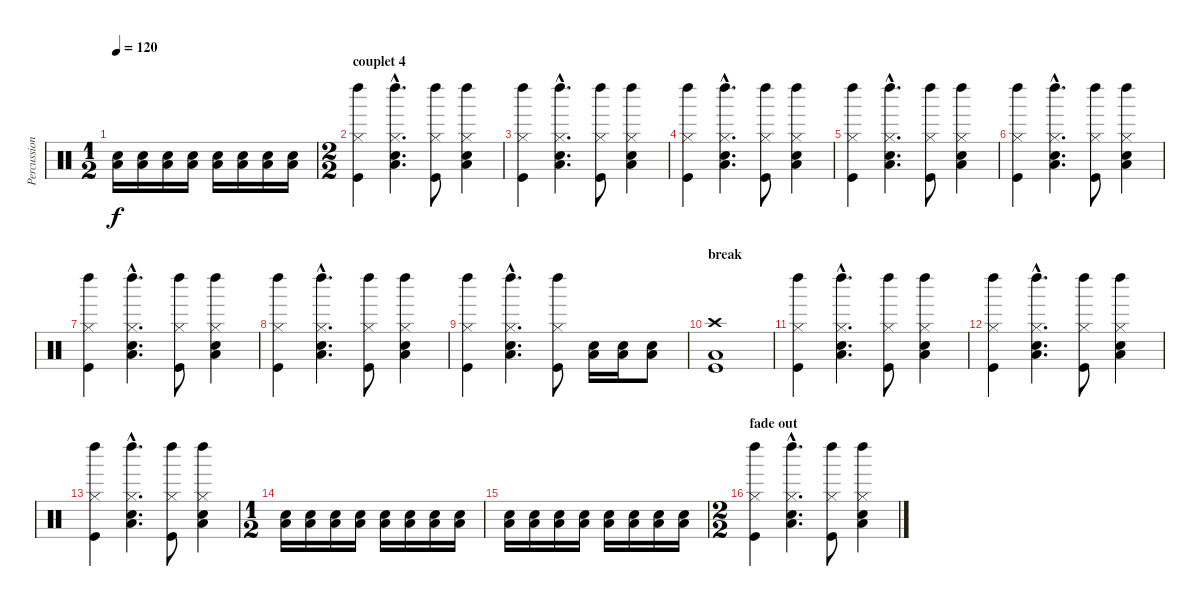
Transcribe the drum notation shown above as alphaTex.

\track ("Percussions" "Percussion") {instrument percussion}
\staff {score}
\articulation defaults
\ts (1 2)
\tempo 120
\clef neutral
\ks c
("Low Floor Tom (hit)" "Hand Clap (hit)").16{dy f} ("Low Floor Tom (hit)" "Hand Clap (hit)").16 ("Low Floor Tom (hit)" "Hand Clap (hit)").16 ("Low Floor Tom (hit)" "Hand Clap (hit)").16 ("Low Floor Tom (hit)" "Hand Clap (hit)").16 ("Low Floor Tom (hit)" "Hand Clap (hit)").16 ("Low Floor Tom (hit)" "Hand Clap (hit)").16 ("Low Floor Tom (hit)" "Hand Clap (hit)").16 |
\ts (2 2)
\section ("" "couplet 4")
("Hi-Hat (closed)" "Left Maraca (hit)" "Kick (hit)").4 ("Hi-Hat (closed)"{hac} "Left Maraca (hit)"{hac} "Low Floor Tom (hit)"{hac} "Hand Clap (hit)"{hac}).4{d} ("Hi-Hat (closed)" "Left Maraca (hit)" "Kick (hit)").8 ("Hi-Hat (closed)" "Left Maraca (hit)" "Low Floor Tom (hit)" "Hand Clap (hit)").4 |
("Hi-Hat (closed)" "Left Maraca (hit)" "Kick (hit)").4 ("Hi-Hat (closed)"{hac} "Left Maraca (hit)"{hac} "Low Floor Tom (hit)"{hac} "Hand Clap (hit)"{hac}).4{d} ("Hi-Hat (closed)" "Left Maraca (hit)" "Kick (hit)").8 ("Hi-Hat (closed)" "Left Maraca (hit)" "Low Floor Tom (hit)" "Hand Clap (hit)").4 |
("Hi-Hat (closed)" "Left Maraca (hit)" "Kick (hit)").4 ("Hi-Hat (closed)"{hac} "Left Maraca (hit)"{hac} "Low Floor Tom (hit)"{hac} "Hand Clap (hit)"{hac}).4{d} ("Hi-Hat (closed)" "Left Maraca (hit)" "Kick (hit)").8 ("Hi-Hat (closed)" "Left Maraca (hit)" "Low Floor Tom (hit)" "Hand Clap (hit)").4 |
("Hi-Hat (closed)" "Left Maraca (hit)" "Kick (hit)").4 ("Hi-Hat (closed)"{hac} "Left Maraca (hit)"{hac} "Low Floor Tom (hit)"{hac} "Hand Clap (hit)"{hac}).4{d} ("Hi-Hat (closed)" "Left Maraca (hit)" "Kick (hit)").8 ("Hi-Hat (closed)" "Left Maraca (hit)" "Low Floor Tom (hit)" "Hand Clap (hit)").4 |
("Hi-Hat (closed)" "Left Maraca (hit)" "Kick (hit)").4 ("Hi-Hat (closed)"{hac} "Left Maraca (hit)"{hac} "Low Floor Tom (hit)"{hac} "Hand Clap (hit)"{hac}).4{d} ("Hi-Hat (closed)" "Left Maraca (hit)" "Kick (hit)").8 ("Hi-Hat (closed)" "Left Maraca (hit)" "Low Floor Tom (hit)" "Hand Clap (hit)").4 |
("Hi-Hat (closed)" "Left Maraca (hit)" "Kick (hit)").4 ("Hi-Hat (closed)"{hac} "Left Maraca (hit)"{hac} "Low Floor Tom (hit)"{hac} "Hand Clap (hit)"{hac}).4{d} ("Hi-Hat (closed)" "Left Maraca (hit)" "Kick (hit)").8 ("Hi-Hat (closed)" "Left Maraca (hit)" "Low Floor Tom (hit)" "Hand Clap (hit)").4 |
("Hi-Hat (closed)" "Left Maraca (hit)" "Kick (hit)").4 ("Hi-Hat (closed)"{hac} "Left Maraca (hit)"{hac} "Low Floor Tom (hit)"{hac} "Hand Clap (hit)"{hac}).4{d} ("Hi-Hat (closed)" "Left Maraca (hit)" "Kick (hit)").8 ("Hi-Hat (closed)" "Left Maraca (hit)" "Low Floor Tom (hit)" "Hand Clap (hit)").4 |
("Hi-Hat (closed)" "Left Maraca (hit)" "Kick (hit)").4 ("Hi-Hat (closed)"{hac} "Left Maraca (hit)"{hac} "Low Floor Tom (hit)"{hac} "Hand Clap (hit)"{hac}).4{d} ("Hi-Hat (closed)" "Left Maraca (hit)" "Kick (hit)").8 ("Low Floor Tom (hit)" "Hand Clap (hit)").16 ("Low Floor Tom (hit)" "Hand Clap (hit)").16 ("Low Floor Tom (hit)" "Hand Clap (hit)").8 |
\section ("" "break")
("Crash high (hit)" "Low Floor Tom (hit)" "Kick (hit)").1 |
("Hi-Hat (closed)" "Left Maraca (hit)" "Kick (hit)").4 ("Hi-Hat (closed)"{hac} "Left Maraca (hit)"{hac} "Low Floor Tom (hit)"{hac} "Hand Clap (hit)"{hac}).4{d} ("Hi-Hat (closed)" "Left Maraca (hit)" "Kick (hit)").8 ("Hi-Hat (closed)" "Left Maraca (hit)" "Low Floor Tom (hit)" "Hand Clap (hit)").4 |
("Hi-Hat (closed)" "Left Maraca (hit)" "Kick (hit)").4 ("Hi-Hat (closed)"{hac} "Left Maraca (hit)"{hac} "Low Floor Tom (hit)"{hac} "Hand Clap (hit)"{hac}).4{d} ("Hi-Hat (closed)" "Left Maraca (hit)" "Kick (hit)").8 ("Hi-Hat (closed)" "Left Maraca (hit)" "Low Floor Tom (hit)" "Hand Clap (hit)").4 |
("Hi-Hat (closed)" "Left Maraca (hit)" "Kick (hit)").4 ("Hi-Hat (closed)"{hac} "Left Maraca (hit)"{hac} "Low Floor Tom (hit)"{hac} "Hand Clap (hit)"{hac}).4{d} ("Hi-Hat (closed)" "Left Maraca (hit)" "Kick (hit)").8 ("Hi-Hat (closed)" "Left Maraca (hit)" "Low Floor Tom (hit)" "Hand Clap (hit)").4 |
\ts (1 2)
("Low Floor Tom (hit)" "Hand Clap (hit)").16 ("Low Floor Tom (hit)" "Hand Clap (hit)").16 ("Low Floor Tom (hit)" "Hand Clap (hit)").16 ("Low Floor Tom (hit)" "Hand Clap (hit)").16 ("Low Floor Tom (hit)" "Hand Clap (hit)").16 ("Low Floor Tom (hit)" "Hand Clap (hit)").16 ("Low Floor Tom (hit)" "Hand Clap (hit)").16 ("Low Floor Tom (hit)" "Hand Clap (hit)").16 |
("Low Floor Tom (hit)" "Hand Clap (hit)").16 ("Low Floor Tom (hit)" "Hand Clap (hit)").16 ("Low Floor Tom (hit)" "Hand Clap (hit)").16 ("Low Floor Tom (hit)" "Hand Clap (hit)").16 ("Low Floor Tom (hit)" "Hand Clap (hit)").16 ("Low Floor Tom (hit)" "Hand Clap (hit)").16 ("Low Floor Tom (hit)" "Hand Clap (hit)").16 ("Low Floor Tom (hit)" "Hand Clap (hit)").16 |
\ts (2 2)
\section ("" "fade out")
("Hi-Hat (closed)" "Left Maraca (hit)" "Kick (hit)").4 ("Hi-Hat (closed)"{hac} "Left Maraca (hit)"{hac} "Low Floor Tom (hit)"{hac} "Hand Clap (hit)"{hac}).4{d} ("Hi-Hat (closed)" "Left Maraca (hit)" "Kick (hit)").8 ("Hi-Hat (closed)" "Left Maraca (hit)" "Low Floor Tom (hit)" "Hand Clap (hit)").4
